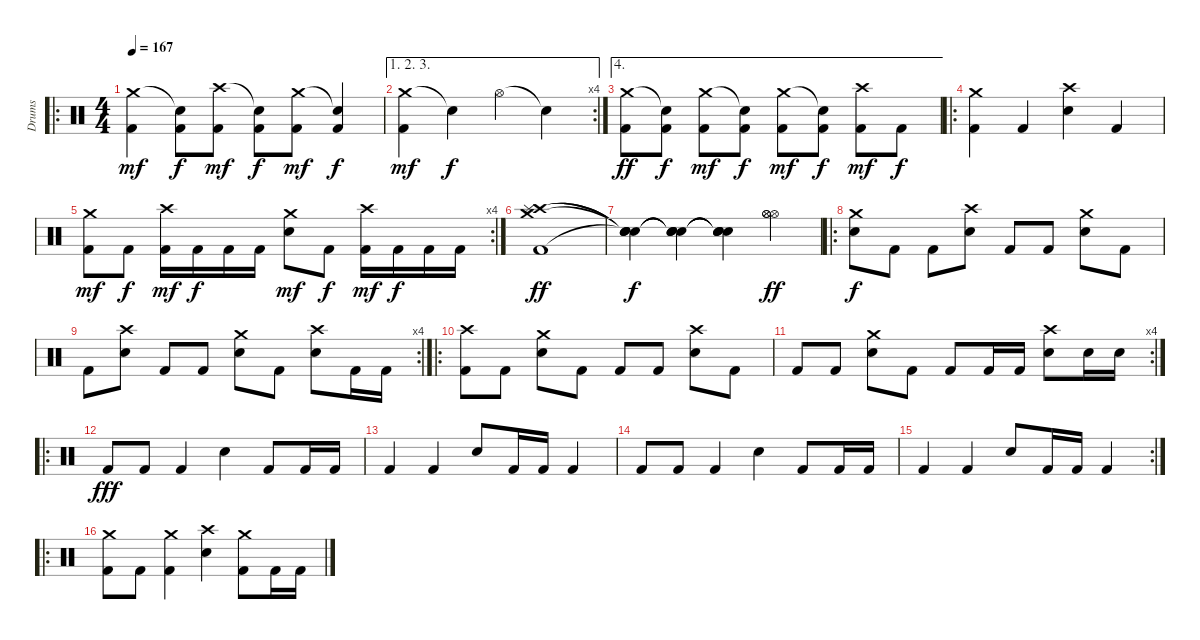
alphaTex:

\track ("Drums" "Drums") {instrument percussion}
\staff {score}
\articulation defaults
\ro
\ts (4 4)
\tempo 167
\clef neutral
\ks c
("Crash medium (hit)" "Kick (hit) 2").4{dy mf} ("Snare (hit)"{t} "Kick (hit) 2").8{dy f} ("Crash high (hit)" "Kick (hit) 2").8{dy mf} ("Snare (hit)"{t} "Kick (hit) 2").8{dy f} ("Crash medium (hit)" "Kick (hit) 2").8{dy mf} ("Snare (hit)"{t} "Kick (hit) 2").4{dy f} |
\ae (1 2 3)
\rc 4
("Crash medium (hit)" "Kick (hit) 2").4{dy mf} "Snare (hit)"{t}.4{dy f} "Hi-Hat (open)".4 "Snare (hit)"{t}.4 |
\ae 4
("Crash medium (hit)" "Kick (hit) 2").8{dy ff} ("Snare (hit)"{t} "Kick (hit) 2").8{dy f} ("Crash medium (hit)" "Kick (hit) 2").8{dy mf} ("Snare (hit)"{t} "Kick (hit) 2").8{dy f} ("Crash medium (hit)" "Kick (hit) 2").8{dy mf} ("Snare (hit)"{t} "Kick (hit) 2").8{dy f} ("Crash high (hit)" "Kick (hit) 2").8{dy mf} "Kick (hit) 2".8{dy f} |
\ro
("Crash medium (hit)" "Kick (hit) 2").4 "Kick (hit) 2".4 ("Crash high (hit)" "Snare (hit) 2").4 "Kick (hit) 2".4 |
\rc 4
("Crash medium (hit)" "Kick (hit) 2").8{dy mf} "Kick (hit) 2".8{dy f} ("Crash high (hit)" "Kick (hit) 2").16{dy mf} "Kick (hit) 2".16{dy f} "Kick (hit) 2".16 "Kick (hit) 2".16 ("Crash medium (hit)" "Snare (hit) 2").8{dy mf} "Kick (hit) 2".8{dy f} ("Crash high (hit)" "Kick (hit) 2").16{dy mf} "Kick (hit) 2".16{dy f} "Kick (hit) 2".16 "Kick (hit) 2".16 |
("Crash high (hit)" "Splash (hit)" "Crash medium (hit)" "Kick (hit) 2").1{dy ff} |
("Snare (hit)"{t} "Snare (hit)"{t} "Snare (hit)"{t} "Snare (hit)"{t}).4{dy f} ("Snare (hit)"{t} "Snare (hit)"{t} "Snare (hit)"{t} "Snare (hit)"{t}).4 ("Snare (hit)"{t} "Snare (hit)"{t} "Snare (hit)"{t} "Snare (hit)"{t}).4 ("Hi-Hat (open)" "Hi-Hat (open)" "Hi-Hat (open)").4{dy ff} |
\ro
("Crash medium (hit)" "Snare (hit) 2").8{dy f} "Kick (hit) 2".8 "Kick (hit) 2".8 ("Crash high (hit)" "Snare (hit) 2").8 "Kick (hit) 2".8 "Kick (hit) 2".8 ("Crash medium (hit)" "Snare (hit) 2").8 "Kick (hit) 2".8 |
\rc 4 "Kick (hit) 2".8
("Crash high (hit)" "Snare (hit) 2").8 "Kick (hit) 2".8 "Kick (hit) 2".8 ("Crash medium (hit)" "Snare (hit) 2").8 "Kick (hit) 2".8 ("Crash high (hit)" "Snare (hit) 2").8 "Kick (hit) 2".16 "Kick (hit) 2".16 |
\ro
("Crash high (hit)" "Kick (hit) 2").8 "Kick (hit) 2".8 ("Crash medium (hit)" "Snare (hit) 2").8 "Kick (hit) 2".8 "Kick (hit) 2".8 "Kick (hit) 2".8 ("Crash high (hit)" "Snare (hit) 2").8 "Kick (hit) 2".8 |
\rc 4 "Kick (hit) 2".8 "Kick (hit) 2".8
("Crash medium (hit)" "Snare (hit) 2").8 "Kick (hit) 2".8 "Kick (hit) 2".8 "Kick (hit) 2".16 "Kick (hit) 2".16 ("Crash high (hit)" "Snare (hit) 2").8 "Snare (hit) 2".16 "Snare (hit) 2".16 |
\ro "Kick (hit) 2".8{dy fff} "Kick (hit) 2".8 "Kick (hit) 2".4 "Snare (hit) 2".4 "Kick (hit) 2".8 "Kick (hit) 2".16 "Kick (hit) 2".16
|
"Kick (hit) 2".4 "Kick (hit) 2".4 "Snare (hit) 2".8 "Kick (hit) 2".16 "Kick (hit) 2".16 "Kick (hit) 2".4 |
"Kick (hit) 2".8 "Kick (hit) 2".8 "Kick (hit) 2".4 "Snare (hit) 2".4 "Kick (hit) 2".8 "Kick (hit) 2".16 "Kick (hit) 2".16 |
\rc 2 "Kick (hit) 2".4 "Kick (hit) 2".4 "Snare (hit) 2".8 "Kick (hit) 2".16 "Kick (hit) 2".16 "Kick (hit) 2".4
|
\ro
("Crash medium (hit)" "Kick (hit) 2").8 "Kick (hit) 2".8 ("Crash medium (hit)" "Kick (hit) 2").4 ("Crash high (hit)" "Snare (hit) 2").4 ("Crash medium (hit)" "Kick (hit) 2").8 "Kick (hit) 2".16 "Kick (hit) 2".16
